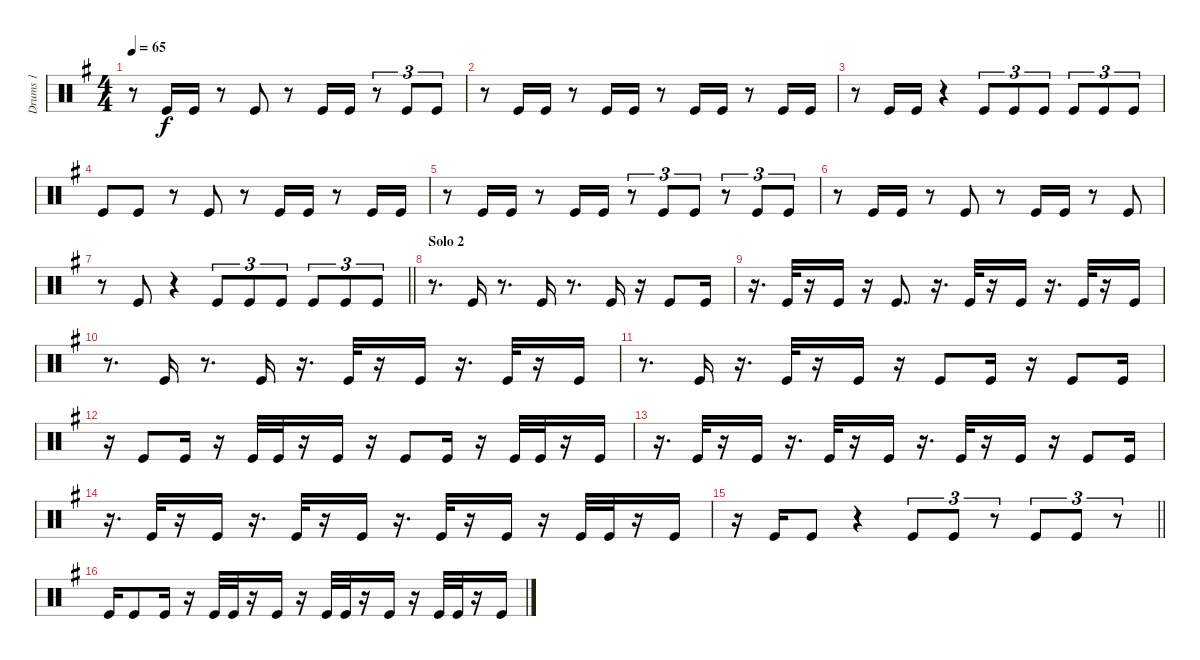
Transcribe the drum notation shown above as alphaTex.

\track ("Drums 1" "Drums 1") {instrument percussion}
\staff {score}
\articulation defaults
\ts (4 4)
\tempo 65
\clef neutral
\ks g
r.8{dy f} "Kick (hit)".16 "Kick (hit)".16 r.8 "Kick (hit)".8 r.8 "Kick (hit)".16 "Kick (hit)".16 r.8{tu (3 2)} "Kick (hit)".8{tu (3 2)} "Kick (hit)".8{tu (3 2)} |
r.8 "Kick (hit)".16 "Kick (hit)".16 r.8 "Kick (hit)".16 "Kick (hit)".16 r.8 "Kick (hit)".16 "Kick (hit)".16 r.8 "Kick (hit)".16 "Kick (hit)".16 |
r.8 "Kick (hit)".16 "Kick (hit)".16 r.4 "Kick (hit)".8{tu (3 2)} "Kick (hit)".8{tu (3 2)} "Kick (hit)".8{tu (3 2)} "Kick (hit)".8{tu (3 2)} "Kick (hit)".8{tu (3 2)} "Kick (hit)".8{tu (3 2)} |
"Kick (hit)".8 "Kick (hit)".8 r.8 "Kick (hit)".8 r.8 "Kick (hit)".16 "Kick (hit)".16 r.8 "Kick (hit)".16 "Kick (hit)".16 |
r.8 "Kick (hit)".16 "Kick (hit)".16 r.8 "Kick (hit)".16 "Kick (hit)".16 r.8{tu (3 2)} "Kick (hit)".8{tu (3 2)} "Kick (hit)".8{tu (3 2)} r.8{tu (3 2)} "Kick (hit)".8{tu (3 2)} "Kick (hit)".8{tu (3 2)} |
r.8 "Kick (hit)".16 "Kick (hit)".16 r.8 "Kick (hit)".8 r.8 "Kick (hit)".16 "Kick (hit)".16 r.8 "Kick (hit)".8 |
\barLineRight lightlight
r.8 "Kick (hit)".8 r.4 "Kick (hit)".8{tu (3 2)} "Kick (hit)".8{tu (3 2)} "Kick (hit)".8{tu (3 2)} "Kick (hit)".8{tu (3 2)} "Kick (hit)".8{tu (3 2)} "Kick (hit)".8{tu (3 2)} |
\section ("" "Solo 2")
r.8{d} "Kick (hit)".16 r.8{d} "Kick (hit)".16 r.8{d} "Kick (hit)".16 r.16 "Kick (hit)".8 "Kick (hit)".16 |
r.16{d} "Kick (hit)".32 r.16 "Kick (hit)".16 r.16 "Kick (hit)".8{d} r.16{d} "Kick (hit)".32 r.16 "Kick (hit)".16 r.16{d} "Kick (hit)".32 r.16 "Kick (hit)".16 |
r.8{d} "Kick (hit)".16 r.8{d} "Kick (hit)".16 r.16{d} "Kick (hit)".32 r.16 "Kick (hit)".16 r.16{d} "Kick (hit)".32 r.16 "Kick (hit)".16 |
r.8{d} "Kick (hit)".16 r.16{d} "Kick (hit)".32 r.16 "Kick (hit)".16 r.16 "Kick (hit)".8 "Kick (hit)".16 r.16 "Kick (hit)".8 "Kick (hit)".16 |
r.16 "Kick (hit)".8 "Kick (hit)".16 r.16 "Kick (hit)".32 "Kick (hit)".32 r.16 "Kick (hit)".16 r.16 "Kick (hit)".8 "Kick (hit)".16 r.16 "Kick (hit)".32 "Kick (hit)".32 r.16 "Kick (hit)".16 |
r.16{d} "Kick (hit)".32 r.16 "Kick (hit)".16 r.16{d} "Kick (hit)".32 r.16 "Kick (hit)".16 r.16{d} "Kick (hit)".32 r.16 "Kick (hit)".16 r.16 "Kick (hit)".8 "Kick (hit)".16 |
r.16{d} "Kick (hit)".32 r.16 "Kick (hit)".16 r.16{d} "Kick (hit)".32 r.16 "Kick (hit)".16 r.16{d} "Kick (hit)".32 r.16 "Kick (hit)".16 r.16 "Kick (hit)".32 "Kick (hit)".32 r.16 "Kick (hit)".16 |
\barLineRight lightlight
r.16 "Kick (hit)".16 "Kick (hit)".8 r.4 "Kick (hit)".8{tu (3 2)} "Kick (hit)".8{tu (3 2)} r.8{tu (3 2)} "Kick (hit)".8{tu (3 2)} "Kick (hit)".8{tu (3 2)} r.8{tu (3 2)} |
"Kick (hit)".16 "Kick (hit)".8 "Kick (hit)".16 r.16 "Kick (hit)".32 "Kick (hit)".32 r.16 "Kick (hit)".16 r.16 "Kick (hit)".32 "Kick (hit)".32 r.16 "Kick (hit)".16 r.16 "Kick (hit)".32 "Kick (hit)".32 r.16 "Kick (hit)".16
